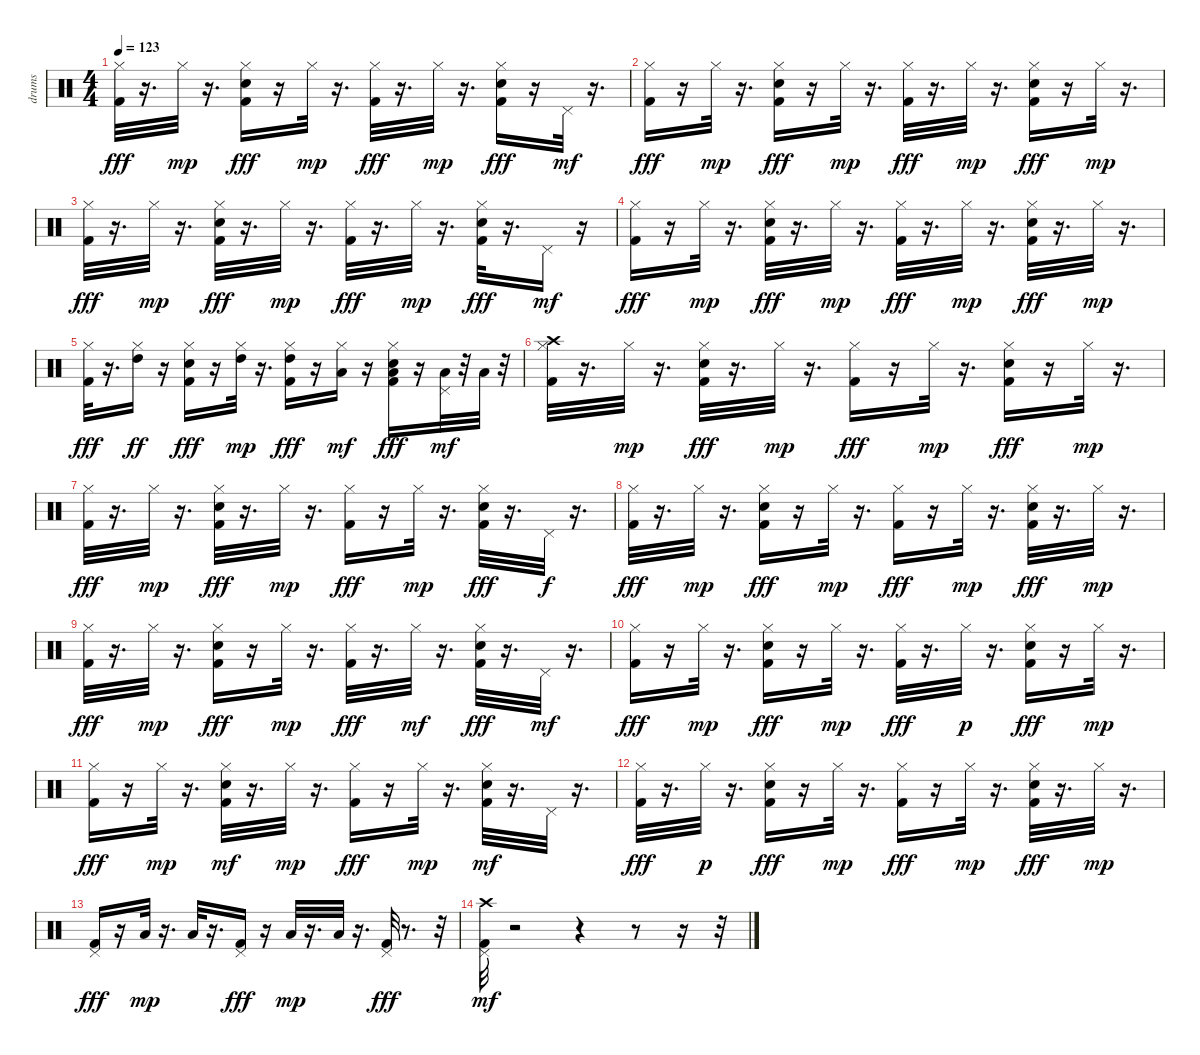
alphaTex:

\track ("drums   " "drums   ") {instrument percussion}
\staff {score}
\articulation defaults
\ts (4 4)
\tempo 123
\clef neutral
\ks c
("Hi-Hat (closed)" "Kick (hit) 2").32{dy fff} r.16{d} "Hi-Hat (closed)".32{dy mp} r.16{d} ("Kick (hit) 2" "Hi-Hat (closed)" "Snare (hit) 2").16{dy fff} r.16 "Hi-Hat (closed)".32{dy mp} r.16{d} ("Hi-Hat (closed)" "Kick (hit) 2").32{dy fff} r.16{d} "Hi-Hat (closed)".32{dy mp} r.16{d} ("Hi-Hat (closed)" "Kick (hit) 2" "Snare (hit) 2").16{dy fff} r.16 "Pedal Hi-Hat (hit)".32{dy mf} r.16{d} |
("Hi-Hat (closed)" "Kick (hit) 2").16{dy fff} r.16 "Hi-Hat (closed)".32{dy mp} r.16{d} ("Hi-Hat (closed)" "Snare (hit) 2" "Kick (hit) 2").16{dy fff} r.16 "Hi-Hat (closed)".32{dy mp} r.16{d} ("Hi-Hat (closed)" "Kick (hit) 2").32{dy fff} r.16{d} "Hi-Hat (closed)".32{dy mp} r.16{d} ("Kick (hit) 2" "Hi-Hat (closed)" "Snare (hit) 2").16{dy fff} r.16 "Hi-Hat (closed)".32{dy mp} r.16{d} |
("Hi-Hat (closed)" "Kick (hit) 2").32{dy fff} r.16{d} "Hi-Hat (closed)".32{dy mp} r.16{d} ("Kick (hit) 2" "Hi-Hat (closed)" "Snare (hit) 2").32{dy fff} r.16{d} "Hi-Hat (closed)".32{dy mp} r.16{d} ("Hi-Hat (closed)" "Kick (hit) 2").32{dy fff} r.16{d} "Hi-Hat (closed)".32{dy mp} r.16{d} ("Kick (hit) 2" "Hi-Hat (closed)" "Snare (hit) 2").32{dy fff} r.16{d} "Pedal Hi-Hat (hit)".16{dy mf} r.16 |
("Hi-Hat (closed)" "Kick (hit) 2").16{dy fff} r.16 "Hi-Hat (closed)".32{dy mp} r.16{d} ("Kick (hit) 2" "Hi-Hat (closed)" "Snare (hit) 2").32{dy fff} r.16{d} "Hi-Hat (closed)".32{dy mp} r.16{d} ("Hi-Hat (closed)" "Kick (hit) 2").32{dy fff} r.16{d} "Hi-Hat (closed)".32{dy mp} r.16{d} ("Kick (hit) 2" "Hi-Hat (closed)" "Snare (hit) 2").32{dy fff} r.16{d} "Hi-Hat (closed)".32{dy mp} r.16{d} |
("Kick (hit) 2" "Hi-Hat (closed)").32{dy fff} r.16{d} ("Hi-Hat (closed)" "High Tom (hit)").16{dy ff} r.16 ("Kick (hit) 2" "Hi-Hat (closed)" "Snare (hit) 2").16{dy fff} r.16 ("Hi-Hat (closed)" "High Tom (hit)").32{dy mp} r.16{d} ("Kick (hit) 2" "Hi-Hat (closed)" "High Tom (hit)").16{dy fff} r.16 ("Hi-Hat (closed)" "Low Tom (hit)").16{dy mf} r.16 ("Kick (hit) 2" "Hi-Hat (closed)" "Snare (hit) 2" "Low Tom (hit)").16{dy fff} r.16 ("Pedal Hi-Hat (hit)" "Low Floor Tom (hit)").32{dy mf} r.32 "Low Floor Tom (hit)".32 r.32 |
("Hi-Hat (closed)" "Kick (hit) 2" "Crash high (hit)").32 r.16{d} "Hi-Hat (closed)".32{dy mp} r.16{d} ("Hi-Hat (closed)" "Snare (hit) 2" "Kick (hit) 2").32{dy fff} r.16{d} "Hi-Hat (closed)".32{dy mp} r.16{d} ("Hi-Hat (closed)" "Kick (hit) 2").16{dy fff} r.16 "Hi-Hat (closed)".32{dy mp} r.16{d} ("Hi-Hat (closed)" "Snare (hit) 2" "Kick (hit) 2").16{dy fff} r.16 "Hi-Hat (closed)".32{dy mp} r.16{d} |
("Hi-Hat (closed)" "Kick (hit) 2").32{dy fff} r.16{d} "Hi-Hat (closed)".32{dy mp} r.16{d} ("Hi-Hat (closed)" "Kick (hit) 2" "Snare (hit) 2").32{dy fff} r.16{d} "Hi-Hat (closed)".32{dy mp} r.16{d} ("Kick (hit) 2" "Hi-Hat (closed)").16{dy fff} r.16 "Hi-Hat (closed)".32{dy mp} r.16{d} ("Kick (hit) 2" "Hi-Hat (closed)" "Snare (hit) 2").32{dy fff} r.16{d} "Pedal Hi-Hat (hit)".32{dy f} r.16{d} |
("Hi-Hat (closed)" "Kick (hit) 2").32{dy fff} r.16{d} "Hi-Hat (closed)".32{dy mp} r.16{d} ("Kick (hit) 2" "Hi-Hat (closed)" "Snare (hit) 2").16{dy fff} r.16 "Hi-Hat (closed)".32{dy mp} r.16{d} ("Hi-Hat (closed)" "Kick (hit) 2").16{dy fff} r.16 "Hi-Hat (closed)".32{dy mp} r.16{d} ("Kick (hit) 2" "Hi-Hat (closed)" "Snare (hit) 2").32{dy fff} r.16{d} "Hi-Hat (closed)".32{dy mp} r.16{d} |
("Kick (hit) 2" "Hi-Hat (closed)").32{dy fff} r.16{d} "Hi-Hat (closed)".32{dy mp} r.16{d} ("Kick (hit) 2" "Hi-Hat (closed)" "Snare (hit) 2").16{dy fff} r.16 "Hi-Hat (closed)".32{dy mp} r.16{d} ("Hi-Hat (closed)" "Kick (hit) 2").32{dy fff} r.16{d} "Hi-Hat (closed)".32{dy mf} r.16{d} ("Hi-Hat (closed)" "Kick (hit) 2" "Snare (hit) 2").32{dy fff} r.16{d} "Pedal Hi-Hat (hit)".32{dy mf} r.16{d} |
("Hi-Hat (closed)" "Kick (hit) 2").16{dy fff} r.16 "Hi-Hat (closed)".32{dy mp} r.16{d} ("Hi-Hat (closed)" "Kick (hit) 2" "Snare (hit) 2").16{dy fff} r.16 "Hi-Hat (closed)".32{dy mp} r.16{d} ("Hi-Hat (closed)" "Kick (hit) 2").32{dy fff} r.16{d} "Hi-Hat (closed)".32{dy p} r.16{d} ("Kick (hit) 2" "Hi-Hat (closed)" "Snare (hit) 2").16{dy fff} r.16 "Hi-Hat (closed)".32{dy mp} r.16{d} |
("Hi-Hat (closed)" "Kick (hit) 2").16{dy fff} r.16 "Hi-Hat (closed)".32{dy mp} r.16{d} ("Snare (hit) 2" "Kick (hit) 2" "Hi-Hat (closed)").32{dy mf} r.16{d} "Hi-Hat (closed)".32{dy mp} r.16{d} ("Hi-Hat (closed)" "Kick (hit) 2").16{dy fff} r.16 "Hi-Hat (closed)".32{dy mp} r.16{d} ("Snare (hit) 2" "Kick (hit) 2" "Hi-Hat (closed)").32{dy mf} r.16{d} "Pedal Hi-Hat (hit)".32 r.16{d} |
("Hi-Hat (closed)" "Kick (hit) 2").32{dy fff} r.16{d} "Hi-Hat (closed)".32{dy p} r.16{d} ("Kick (hit) 2" "Hi-Hat (closed)" "Snare (hit) 2").16{dy fff} r.16 "Hi-Hat (closed)".32{dy mp} r.16{d} ("Hi-Hat (closed)" "Kick (hit) 2").16{dy fff} r.16 "Hi-Hat (closed)".32{dy mp} r.16{d} ("Kick (hit) 2" "Hi-Hat (closed)" "Snare (hit) 2").32{dy fff} r.16{d} "Hi-Hat (closed)".32{dy mp} r.16{d} |
("Pedal Hi-Hat (hit)" "Kick (hit) 2").16{dy fff} r.16 "Low Tom (hit)".32{dy mp} r.16{d} "Low Tom (hit)".32 r.16{d} ("Pedal Hi-Hat (hit)" "Kick (hit) 2").16{dy fff} r.16 "Low Floor Tom (hit)".32{dy mp} r.16{d} "Low Floor Tom (hit)".32 r.16{d} ("Pedal Hi-Hat (hit)" "Kick (hit) 2").32{dy fff} r.8{d} r.32 |
("Pedal Hi-Hat (hit)" "Kick (hit) 2" "Crash high (hit)").32{dy mf} r.2 r.4 r.8 r.16 r.32
